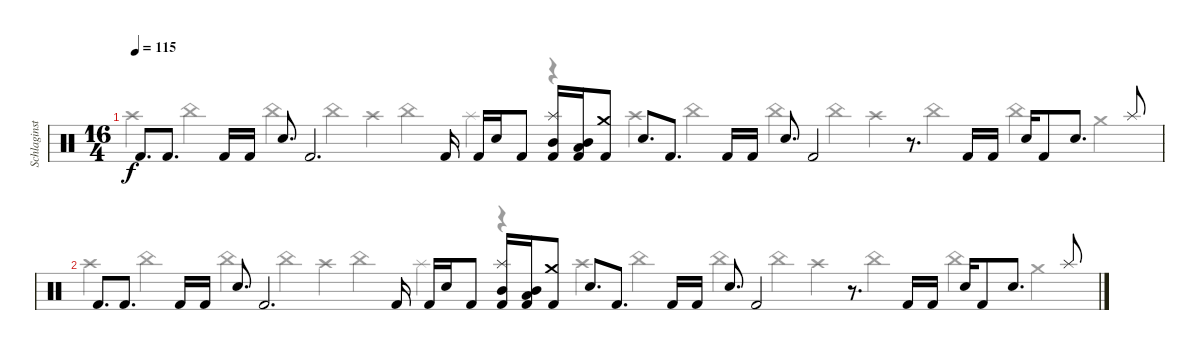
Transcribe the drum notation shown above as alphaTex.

\track ("Schlaginstrumente - Auswahl" "Schlaginst") {instrument percussion}
\staff {score}
\articulation defaults
\voice
\ts (16 4)
\tempo 115
\clef neutral
\ks c "Kick (hit) 2".8{d dy f} "Kick (hit) 2".8{d} "Kick (hit) 2".16 "Kick (hit) 2".16 "Snare (hit) 2".8{d} "Kick (hit) 2".2{d} "Kick (hit) 2".16 "Kick (hit) 2".16 "Snare (hit) 2".16 "Kick (hit) 2".8
("Mid Tom (hit)" "Splash (hit)" "Kick (hit) 2").16 ("Mid Tom (hit)" "Low Tom (hit)" "Kick (hit) 2").16 ("Crash medium (hit)" "Kick (hit) 2").8 "Snare (hit) 2".8{d} "Kick (hit) 2".8{d} "Kick (hit) 2".16 "Kick (hit) 2".16 "Snare (hit) 2".8{d} "Kick (hit) 2".2 r.8{d} "Kick (hit) 2".16 "Kick (hit) 2".16 "Snare (hit) 2".16 "Kick (hit) 2".8 "Snare (hit) 2".8{d} "Splash (hit)".8 |
"Kick (hit) 2".8{d} "Kick (hit) 2".8{d} "Kick (hit) 2".16 "Kick (hit) 2".16 "Snare (hit) 2".8{d} "Kick (hit) 2".2{d} "Kick (hit) 2".16 "Kick (hit) 2".16 "Snare (hit) 2".16 "Kick (hit) 2".8 ("Mid Tom (hit)" "Splash (hit)" "Kick (hit) 2").16 ("Mid Tom (hit)" "Low Tom (hit)" "Kick (hit) 2").16 ("Crash medium (hit)" "Kick (hit) 2").8 "Snare (hit) 2".8{d} "Kick (hit) 2".8{d} "Kick (hit) 2".16 "Kick (hit) 2".16 "Snare (hit) 2".8{d} "Kick (hit) 2".2 r.8{d} "Kick (hit) 2".16 "Kick (hit) 2".16 "Snare (hit) 2".16 "Kick (hit) 2".8 "Snare (hit) 2".8{d} "Splash (hit)".8 |
|
\voice
\clef neutral
\ottava regular
\simile none
\ks c "Crash high (hit)".4{dy f} "China (hit)".4 "China (hit)".4 "China (hit)".4 "Crash high (hit)".4 "China (hit)".4 "Splash (hit)".4
r.4 "Crash high (hit)".4 "China (hit)".4 "China (hit)".4 "China (hit)".4 "Crash high (hit)".4 "China (hit)".4 "China (hit)".4 "Crash medium (hit)".4 |
"Crash high (hit)".4 "China (hit)".4 "China (hit)".4 "China (hit)".4 "Crash high (hit)".4 "China (hit)".4 "Splash (hit)".4 r.4 "Crash high (hit)".4 "China (hit)".4 "China (hit)".4 "China (hit)".4 "Crash high (hit)".4 "China (hit)".4 "China (hit)".4 "Crash medium (hit)".4 |
|
